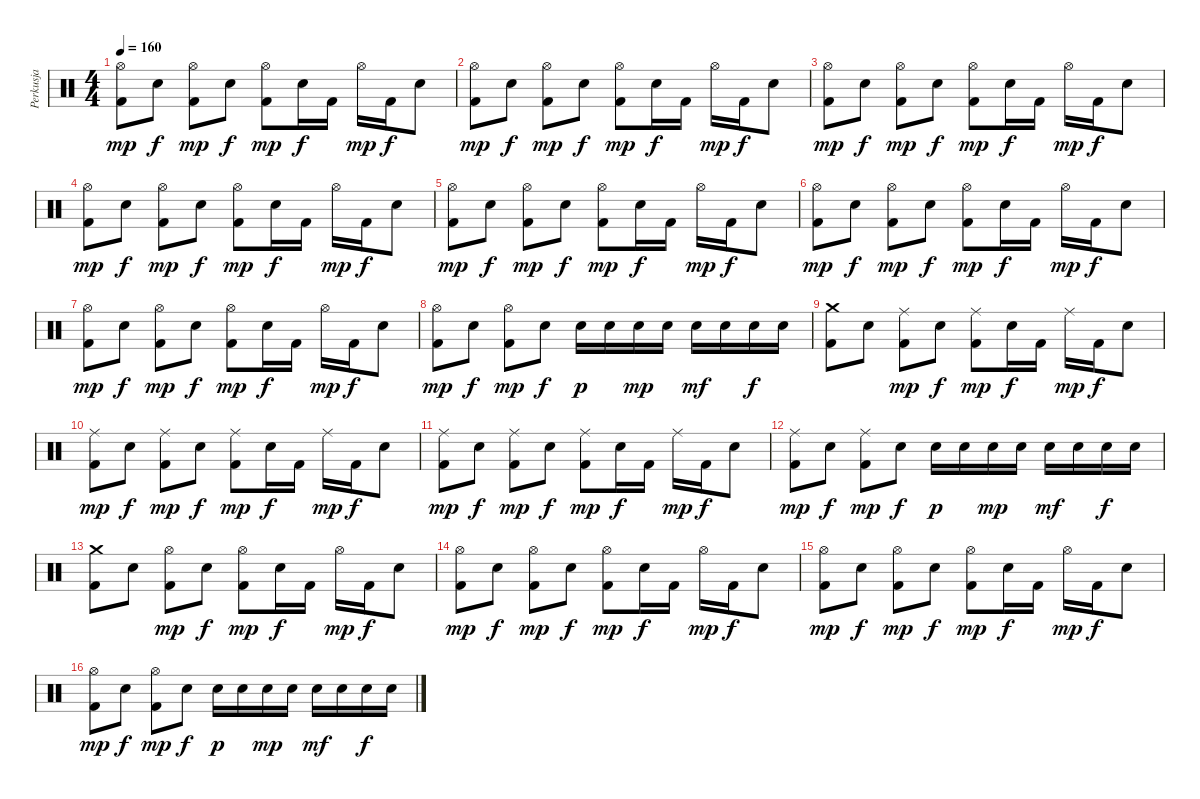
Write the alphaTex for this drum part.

\track ("Perkusja" "Perkusja") {instrument percussion}
\staff {score}
\articulation defaults
\ts (4 4)
\tempo 160
\clef neutral
\ks c
("Kick (hit) 2" "Hi-Hat (open)").8{dy mp} "Electric Snare (hit)".8{dy f} ("Kick (hit) 2" "Hi-Hat (open)").8{dy mp} "Electric Snare (hit)".8{dy f} ("Kick (hit) 2" "Hi-Hat (open)").8{dy mp} "Electric Snare (hit)".16{dy f} "Kick (hit) 2".16 "Hi-Hat (open)".16{dy mp} "Kick (hit) 2".16{dy f} "Electric Snare (hit)".8 |
("Kick (hit) 2" "Hi-Hat (open)").8{dy mp} "Electric Snare (hit)".8{dy f} ("Kick (hit) 2" "Hi-Hat (open)").8{dy mp} "Electric Snare (hit)".8{dy f} ("Kick (hit) 2" "Hi-Hat (open)").8{dy mp} "Electric Snare (hit)".16{dy f} "Kick (hit) 2".16 "Hi-Hat (open)".16{dy mp} "Kick (hit) 2".16{dy f} "Electric Snare (hit)".8 |
("Kick (hit) 2" "Hi-Hat (open)").8{dy mp} "Electric Snare (hit)".8{dy f} ("Kick (hit) 2" "Hi-Hat (open)").8{dy mp} "Electric Snare (hit)".8{dy f} ("Kick (hit) 2" "Hi-Hat (open)").8{dy mp} "Electric Snare (hit)".16{dy f} "Kick (hit) 2".16 "Hi-Hat (open)".16{dy mp} "Kick (hit) 2".16{dy f} "Electric Snare (hit)".8 |
("Kick (hit) 2" "Hi-Hat (open)").8{dy mp} "Electric Snare (hit)".8{dy f} ("Kick (hit) 2" "Hi-Hat (open)").8{dy mp} "Electric Snare (hit)".8{dy f} ("Kick (hit) 2" "Hi-Hat (open)").8{dy mp} "Electric Snare (hit)".16{dy f} "Kick (hit) 2".16 "Hi-Hat (open)".16{dy mp} "Kick (hit) 2".16{dy f} "Electric Snare (hit)".8 |
("Kick (hit) 2" "Hi-Hat (open)").8{dy mp} "Electric Snare (hit)".8{dy f} ("Kick (hit) 2" "Hi-Hat (open)").8{dy mp} "Electric Snare (hit)".8{dy f} ("Kick (hit) 2" "Hi-Hat (open)").8{dy mp} "Electric Snare (hit)".16{dy f} "Kick (hit) 2".16 "Hi-Hat (open)".16{dy mp} "Kick (hit) 2".16{dy f} "Electric Snare (hit)".8 |
("Kick (hit) 2" "Hi-Hat (open)").8{dy mp} "Electric Snare (hit)".8{dy f} ("Kick (hit) 2" "Hi-Hat (open)").8{dy mp} "Electric Snare (hit)".8{dy f} ("Kick (hit) 2" "Hi-Hat (open)").8{dy mp} "Electric Snare (hit)".16{dy f} "Kick (hit) 2".16 "Hi-Hat (open)".16{dy mp} "Kick (hit) 2".16{dy f} "Electric Snare (hit)".8 |
("Kick (hit) 2" "Hi-Hat (open)").8{dy mp} "Electric Snare (hit)".8{dy f} ("Kick (hit) 2" "Hi-Hat (open)").8{dy mp} "Electric Snare (hit)".8{dy f} ("Kick (hit) 2" "Hi-Hat (open)").8{dy mp} "Electric Snare (hit)".16{dy f} "Kick (hit) 2".16 "Hi-Hat (open)".16{dy mp} "Kick (hit) 2".16{dy f} "Electric Snare (hit)".8 |
("Kick (hit) 2" "Hi-Hat (open)").8{dy mp} "Electric Snare (hit)".8{dy f} ("Kick (hit) 2" "Hi-Hat (open)").8{dy mp} "Electric Snare (hit)".8{dy f} "Electric Snare (hit)".16{dy p} "Electric Snare (hit)".16 "Electric Snare (hit)".16{dy mp} "Electric Snare (hit)".16 "Electric Snare (hit)".16{dy mf} "Electric Snare (hit)".16 "Electric Snare (hit)".16{dy f} "Electric Snare (hit)".16 |
("Kick (hit) 2" "Crash medium (hit)").8 "Electric Snare (hit)".8 ("Kick (hit) 2" "Ride (middle)").8{dy mp} "Electric Snare (hit)".8{dy f} ("Kick (hit) 2" "Ride (middle)").8{dy mp} "Electric Snare (hit)".16{dy f} "Kick (hit) 2".16 "Ride (middle)".16{dy mp} "Kick (hit) 2".16{dy f} "Electric Snare (hit)".8 |
("Kick (hit) 2" "Ride (middle)").8{dy mp} "Electric Snare (hit)".8{dy f} ("Kick (hit) 2" "Ride (middle)").8{dy mp} "Electric Snare (hit)".8{dy f} ("Kick (hit) 2" "Ride (middle)").8{dy mp} "Electric Snare (hit)".16{dy f} "Kick (hit) 2".16 "Ride (middle)".16{dy mp} "Kick (hit) 2".16{dy f} "Electric Snare (hit)".8 |
("Kick (hit) 2" "Ride (middle)").8{dy mp} "Electric Snare (hit)".8{dy f} ("Kick (hit) 2" "Ride (middle)").8{dy mp} "Electric Snare (hit)".8{dy f} ("Kick (hit) 2" "Ride (middle)").8{dy mp} "Electric Snare (hit)".16{dy f} "Kick (hit) 2".16 "Ride (middle)".16{dy mp} "Kick (hit) 2".16{dy f} "Electric Snare (hit)".8 |
("Kick (hit) 2" "Ride (middle)").8{dy mp} "Electric Snare (hit)".8{dy f} ("Kick (hit) 2" "Ride (middle)").8{dy mp} "Electric Snare (hit)".8{dy f} "Electric Snare (hit)".16{dy p} "Electric Snare (hit)".16 "Electric Snare (hit)".16{dy mp} "Electric Snare (hit)".16 "Electric Snare (hit)".16{dy mf} "Electric Snare (hit)".16 "Electric Snare (hit)".16{dy f} "Electric Snare (hit)".16 |
("Kick (hit) 2" "Crash medium (hit)").8 "Electric Snare (hit)".8 ("Kick (hit) 2" "Hi-Hat (open)").8{dy mp} "Electric Snare (hit)".8{dy f} ("Kick (hit) 2" "Hi-Hat (open)").8{dy mp} "Electric Snare (hit)".16{dy f} "Kick (hit) 2".16 "Hi-Hat (open)".16{dy mp} "Kick (hit) 2".16{dy f} "Electric Snare (hit)".8 |
("Kick (hit) 2" "Hi-Hat (open)").8{dy mp} "Electric Snare (hit)".8{dy f} ("Kick (hit) 2" "Hi-Hat (open)").8{dy mp} "Electric Snare (hit)".8{dy f} ("Kick (hit) 2" "Hi-Hat (open)").8{dy mp} "Electric Snare (hit)".16{dy f} "Kick (hit) 2".16 "Hi-Hat (open)".16{dy mp} "Kick (hit) 2".16{dy f} "Electric Snare (hit)".8 |
("Kick (hit) 2" "Hi-Hat (open)").8{dy mp} "Electric Snare (hit)".8{dy f} ("Kick (hit) 2" "Hi-Hat (open)").8{dy mp} "Electric Snare (hit)".8{dy f} ("Kick (hit) 2" "Hi-Hat (open)").8{dy mp} "Electric Snare (hit)".16{dy f} "Kick (hit) 2".16 "Hi-Hat (open)".16{dy mp} "Kick (hit) 2".16{dy f} "Electric Snare (hit)".8 |
("Kick (hit) 2" "Hi-Hat (open)").8{dy mp} "Electric Snare (hit)".8{dy f} ("Kick (hit) 2" "Hi-Hat (open)").8{dy mp} "Electric Snare (hit)".8{dy f} "Electric Snare (hit)".16{dy p} "Electric Snare (hit)".16 "Electric Snare (hit)".16{dy mp} "Electric Snare (hit)".16 "Electric Snare (hit)".16{dy mf} "Electric Snare (hit)".16 "Electric Snare (hit)".16{dy f} "Electric Snare (hit)".16
